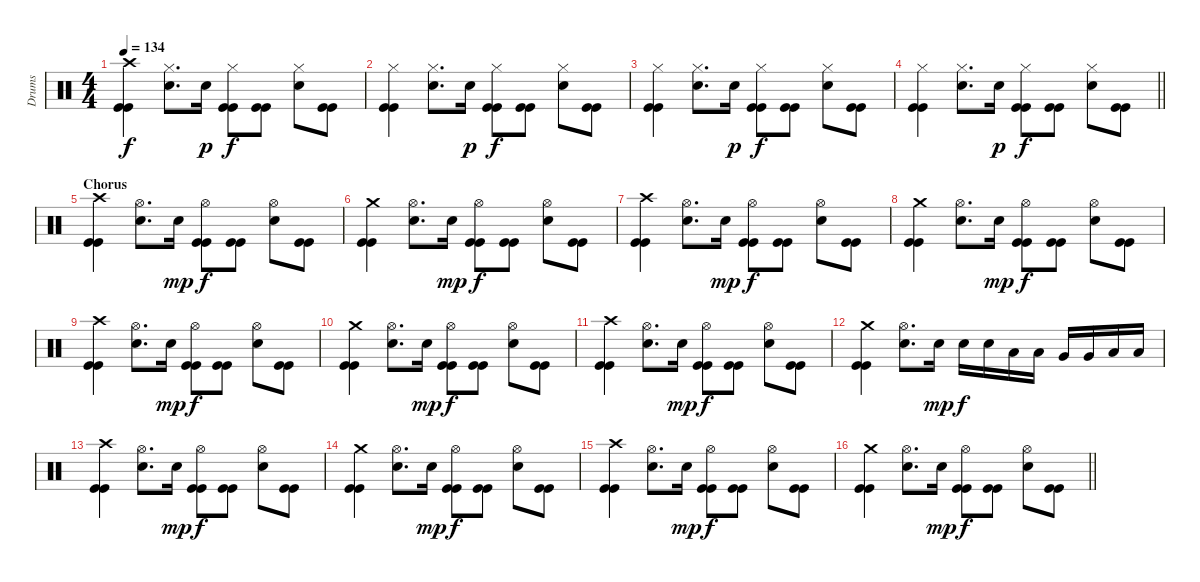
\track ("Drums" "Drums") {instrument percussion}
\staff {score}
\articulation defaults
\ts (4 4)
\tempo 134
\clef neutral
\ks c
("Crash high (hit)" "Kick (hit)" "Kick (hit)").4{dy f} ("Hi-Hat (closed)" "Electric Snare (hit)").8{d} "Electric Snare (hit)".16{dy p} ("Hi-Hat (closed)" "Kick (hit)" "Kick (hit)").8{dy f} ("Kick (hit)" "Kick (hit)").8 ("Hi-Hat (closed)" "Electric Snare (hit)").8 ("Kick (hit)" "Kick (hit)").8 |
("Hi-Hat (closed)" "Kick (hit)" "Kick (hit)").4 ("Hi-Hat (closed)" "Electric Snare (hit)").8{d} "Electric Snare (hit)".16{dy p} ("Hi-Hat (closed)" "Kick (hit)" "Kick (hit)").8{dy f} ("Kick (hit)" "Kick (hit)").8 ("Hi-Hat (closed)" "Electric Snare (hit)").8 ("Kick (hit)" "Kick (hit)").8 |
("Hi-Hat (closed)" "Kick (hit)" "Kick (hit)").4 ("Hi-Hat (closed)" "Electric Snare (hit)").8{d} "Electric Snare (hit)".16{dy p} ("Hi-Hat (closed)" "Kick (hit)" "Kick (hit)").8{dy f} ("Kick (hit)" "Kick (hit)").8 ("Hi-Hat (closed)" "Electric Snare (hit)").8 ("Kick (hit)" "Kick (hit)").8 |
\barLineRight lightlight
("Hi-Hat (closed)" "Kick (hit)" "Kick (hit)").4 ("Hi-Hat (closed)" "Electric Snare (hit)").8{d} "Electric Snare (hit)".16{dy p} ("Hi-Hat (closed)" "Kick (hit)" "Kick (hit)").8{dy f} ("Kick (hit)" "Kick (hit)").8 ("Hi-Hat (closed)" "Electric Snare (hit)").8 ("Kick (hit)" "Kick (hit)").8 |
\section ("" "Chorus")
("Crash high (hit)" "Kick (hit)" "Kick (hit)").4 ("Hi-Hat (open)" "Electric Snare (hit)").8{d} "Electric Snare (hit)".16{dy mp} ("Hi-Hat (open)" "Kick (hit)" "Kick (hit)").8{dy f} ("Kick (hit)" "Kick (hit)").8 ("Hi-Hat (open)" "Electric Snare (hit)").8 ("Kick (hit)" "Kick (hit)").8 |
("Crash medium (hit)" "Kick (hit)" "Kick (hit)").4 ("Hi-Hat (open)" "Electric Snare (hit)").8{d} "Electric Snare (hit)".16{dy mp} ("Hi-Hat (open)" "Kick (hit)" "Kick (hit)").8{dy f} ("Kick (hit)" "Kick (hit)").8 ("Hi-Hat (open)" "Electric Snare (hit)").8 ("Kick (hit)" "Kick (hit)").8 |
("Crash high (hit)" "Kick (hit)" "Kick (hit)").4 ("Hi-Hat (open)" "Electric Snare (hit)").8{d} "Electric Snare (hit)".16{dy mp} ("Hi-Hat (open)" "Kick (hit)" "Kick (hit)").8{dy f} ("Kick (hit)" "Kick (hit)").8 ("Hi-Hat (open)" "Electric Snare (hit)").8 ("Kick (hit)" "Kick (hit)").8 |
("Crash medium (hit)" "Kick (hit)" "Kick (hit)").4 ("Hi-Hat (open)" "Electric Snare (hit)").8{d} "Electric Snare (hit)".16{dy mp} ("Hi-Hat (open)" "Kick (hit)" "Kick (hit)").8{dy f} ("Kick (hit)" "Kick (hit)").8 ("Hi-Hat (open)" "Electric Snare (hit)").8 ("Kick (hit)" "Kick (hit)").8 |
("Crash high (hit)" "Kick (hit)" "Kick (hit)").4 ("Hi-Hat (open)" "Electric Snare (hit)").8{d} "Electric Snare (hit)".16{dy mp} ("Hi-Hat (open)" "Kick (hit)" "Kick (hit)").8{dy f} ("Kick (hit)" "Kick (hit)").8 ("Hi-Hat (open)" "Electric Snare (hit)").8 ("Kick (hit)" "Kick (hit)").8 |
("Crash medium (hit)" "Kick (hit)" "Kick (hit)").4 ("Hi-Hat (open)" "Electric Snare (hit)").8{d} "Electric Snare (hit)".16{dy mp} ("Hi-Hat (open)" "Kick (hit)" "Kick (hit)").8{dy f} ("Kick (hit)" "Kick (hit)").8 ("Hi-Hat (open)" "Electric Snare (hit)").8 ("Kick (hit)" "Kick (hit)").8 |
("Crash high (hit)" "Kick (hit)" "Kick (hit)").4 ("Hi-Hat (open)" "Electric Snare (hit)").8{d} "Electric Snare (hit)".16{dy mp} ("Hi-Hat (open)" "Kick (hit)" "Kick (hit)").8{dy f} ("Kick (hit)" "Kick (hit)").8 ("Hi-Hat (open)" "Electric Snare (hit)").8 ("Kick (hit)" "Kick (hit)").8 |
("Crash medium (hit)" "Kick (hit)" "Kick (hit)").4 ("Hi-Hat (open)" "Electric Snare (hit)").8{d} "Electric Snare (hit)".16{dy mp} "Electric Snare (hit)".16{dy f} "Electric Snare (hit)".16 "Low Tom (hit)".16 "Low Tom (hit)".16 "Very Low Tom (hit)".16 "Very Low Tom (hit)".16 "Low Floor Tom (hit)".16 "Low Floor Tom (hit)".16 |
("Crash high (hit)" "Kick (hit)" "Kick (hit)").4 ("Hi-Hat (open)" "Electric Snare (hit)").8{d} "Electric Snare (hit)".16{dy mp} ("Hi-Hat (open)" "Kick (hit)" "Kick (hit)").8{dy f} ("Kick (hit)" "Kick (hit)").8 ("Hi-Hat (open)" "Electric Snare (hit)").8 ("Kick (hit)" "Kick (hit)").8 |
("Crash medium (hit)" "Kick (hit)" "Kick (hit)").4 ("Hi-Hat (open)" "Electric Snare (hit)").8{d} "Electric Snare (hit)".16{dy mp} ("Hi-Hat (open)" "Kick (hit)" "Kick (hit)").8{dy f} ("Kick (hit)" "Kick (hit)").8 ("Hi-Hat (open)" "Electric Snare (hit)").8 ("Kick (hit)" "Kick (hit)").8 |
("Crash high (hit)" "Kick (hit)" "Kick (hit)").4 ("Hi-Hat (open)" "Electric Snare (hit)").8{d} "Electric Snare (hit)".16{dy mp} ("Hi-Hat (open)" "Kick (hit)" "Kick (hit)").8{dy f} ("Kick (hit)" "Kick (hit)").8 ("Hi-Hat (open)" "Electric Snare (hit)").8 ("Kick (hit)" "Kick (hit)").8 |
\barLineRight lightlight
("Crash medium (hit)" "Kick (hit)" "Kick (hit)").4 ("Hi-Hat (open)" "Electric Snare (hit)").8{d} "Electric Snare (hit)".16{dy mp} ("Hi-Hat (open)" "Kick (hit)" "Kick (hit)").8{dy f} ("Kick (hit)" "Kick (hit)").8 ("Hi-Hat (open)" "Electric Snare (hit)").8 ("Kick (hit)" "Kick (hit)").8
